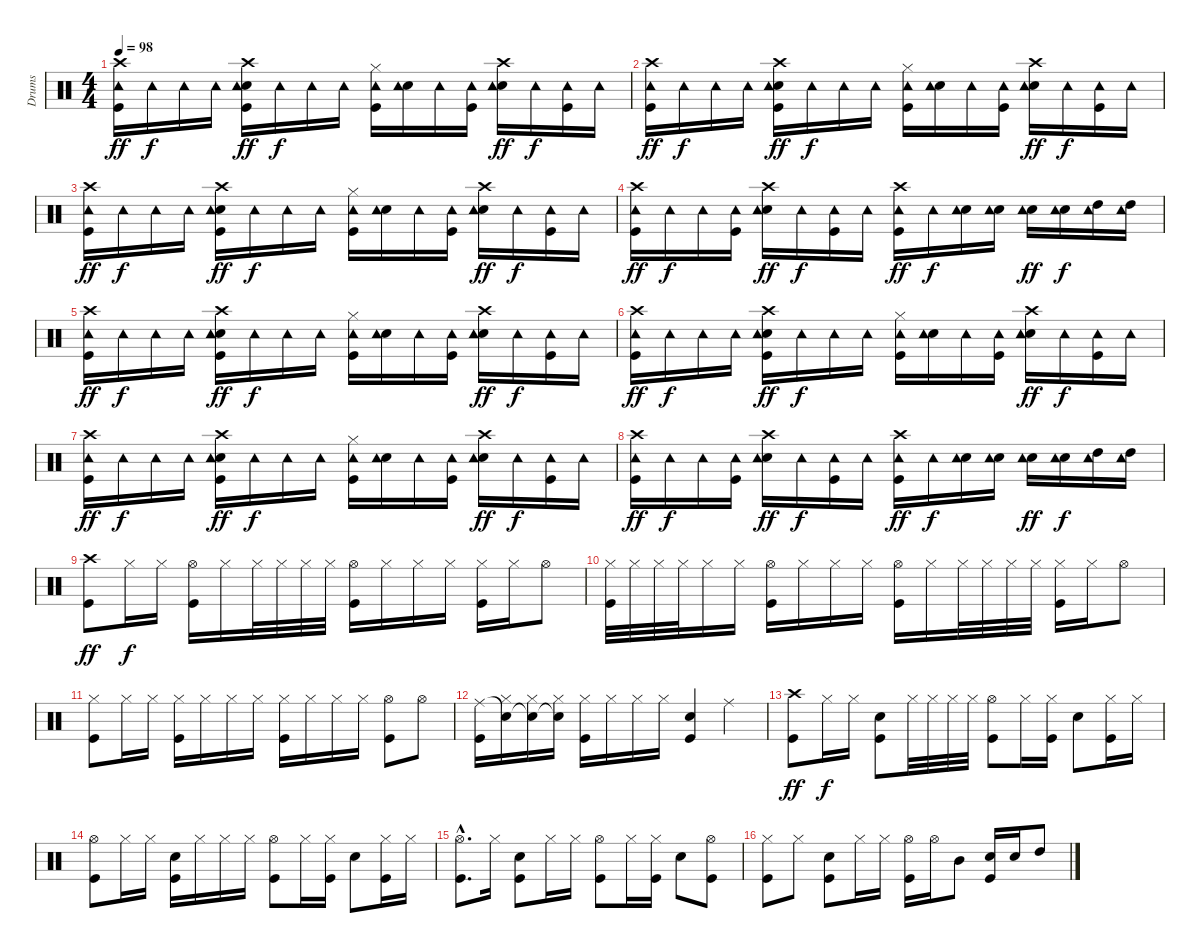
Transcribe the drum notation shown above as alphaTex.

\track ("Drums" "Drums") {instrument percussion}
\staff {score}
\articulation defaults
\ts (4 4)
\tempo 98
\clef neutral
\ks c
("Crash high (hit)" "Kick (hit)" "Tambourine (hit)").16{dy ff} "Tambourine (hit)".16{dy f} "Tambourine (hit)".16 "Tambourine (hit)".16 ("Crash high (hit)" "Kick (hit)" "Electric Snare (hit)" "Tambourine (hit)").16{dy ff} "Tambourine (hit)".16{dy f} "Tambourine (hit)".16 "Tambourine (hit)".16 ("Hi-Hat (closed)" "Kick (hit)" "Tambourine (hit)").16 ("Electric Snare (hit)" "Tambourine (hit)").16 "Tambourine (hit)".16 ("Kick (hit)" "Tambourine (hit)").16 ("Crash high (hit)" "Electric Snare (hit)" "Tambourine (hit)").16{dy ff} "Tambourine (hit)".16{dy f} ("Kick (hit)" "Tambourine (hit)").16 "Tambourine (hit)".16 |
("Crash high (hit)" "Kick (hit)" "Tambourine (hit)").16{dy ff} "Tambourine (hit)".16{dy f} "Tambourine (hit)".16 "Tambourine (hit)".16 ("Crash high (hit)" "Kick (hit)" "Electric Snare (hit)" "Tambourine (hit)").16{dy ff} "Tambourine (hit)".16{dy f} "Tambourine (hit)".16 "Tambourine (hit)".16 ("Hi-Hat (closed)" "Kick (hit)" "Tambourine (hit)").16 ("Electric Snare (hit)" "Tambourine (hit)").16 "Tambourine (hit)".16 ("Kick (hit)" "Tambourine (hit)").16 ("Crash high (hit)" "Electric Snare (hit)" "Tambourine (hit)").16{dy ff} "Tambourine (hit)".16{dy f} ("Kick (hit)" "Tambourine (hit)").16 "Tambourine (hit)".16 |
("Crash high (hit)" "Kick (hit)" "Tambourine (hit)").16{dy ff} "Tambourine (hit)".16{dy f} "Tambourine (hit)".16 "Tambourine (hit)".16 ("Crash high (hit)" "Kick (hit)" "Electric Snare (hit)" "Tambourine (hit)").16{dy ff} "Tambourine (hit)".16{dy f} "Tambourine (hit)".16 "Tambourine (hit)".16 ("Hi-Hat (closed)" "Kick (hit)" "Tambourine (hit)").16 ("Electric Snare (hit)" "Tambourine (hit)").16 "Tambourine (hit)".16 ("Kick (hit)" "Tambourine (hit)").16 ("Crash high (hit)" "Electric Snare (hit)" "Tambourine (hit)").16{dy ff} "Tambourine (hit)".16{dy f} ("Kick (hit)" "Tambourine (hit)").16 "Tambourine (hit)".16 |
("Crash high (hit)" "Kick (hit)" "Tambourine (hit)").16{dy ff} "Tambourine (hit)".16{dy f} "Tambourine (hit)".16 ("Kick (hit)" "Tambourine (hit)").16 ("Crash high (hit)" "Electric Snare (hit)" "Tambourine (hit)").16{dy ff} "Tambourine (hit)".16{dy f} ("Kick (hit)" "Tambourine (hit)").16 "Tambourine (hit)".16 ("Crash high (hit)" "Kick (hit)" "Tambourine (hit)").16{dy ff} "Tambourine (hit)".16{dy f} ("Electric Snare (hit)" "Tambourine (hit)").16 ("Electric Snare (hit)" "Tambourine (hit)").16 ("Electric Snare (hit)" "Tambourine (hit)").16{dy ff} ("Electric Snare (hit)" "Tambourine (hit)").16{dy f} ("High Tom (hit)" "Tambourine (hit)").16 ("High Tom (hit)" "Tambourine (hit)").16 |
("Crash high (hit)" "Kick (hit)" "Tambourine (hit)").16{dy ff} "Tambourine (hit)".16{dy f} "Tambourine (hit)".16 "Tambourine (hit)".16 ("Crash high (hit)" "Kick (hit)" "Electric Snare (hit)" "Tambourine (hit)").16{dy ff} "Tambourine (hit)".16{dy f} "Tambourine (hit)".16 "Tambourine (hit)".16 ("Hi-Hat (closed)" "Kick (hit)" "Tambourine (hit)").16 ("Electric Snare (hit)" "Tambourine (hit)").16 "Tambourine (hit)".16 ("Kick (hit)" "Tambourine (hit)").16 ("Crash high (hit)" "Electric Snare (hit)" "Tambourine (hit)").16{dy ff} "Tambourine (hit)".16{dy f} ("Kick (hit)" "Tambourine (hit)").16 "Tambourine (hit)".16 |
("Crash high (hit)" "Kick (hit)" "Tambourine (hit)").16{dy ff} "Tambourine (hit)".16{dy f} "Tambourine (hit)".16 "Tambourine (hit)".16 ("Crash high (hit)" "Kick (hit)" "Electric Snare (hit)" "Tambourine (hit)").16{dy ff} "Tambourine (hit)".16{dy f} "Tambourine (hit)".16 "Tambourine (hit)".16 ("Hi-Hat (closed)" "Kick (hit)" "Tambourine (hit)").16 ("Electric Snare (hit)" "Tambourine (hit)").16 "Tambourine (hit)".16 ("Kick (hit)" "Tambourine (hit)").16 ("Crash high (hit)" "Electric Snare (hit)" "Tambourine (hit)").16{dy ff} "Tambourine (hit)".16{dy f} ("Kick (hit)" "Tambourine (hit)").16 "Tambourine (hit)".16 |
("Crash high (hit)" "Kick (hit)" "Tambourine (hit)").16{dy ff} "Tambourine (hit)".16{dy f} "Tambourine (hit)".16 "Tambourine (hit)".16 ("Crash high (hit)" "Kick (hit)" "Electric Snare (hit)" "Tambourine (hit)").16{dy ff} "Tambourine (hit)".16{dy f} "Tambourine (hit)".16 "Tambourine (hit)".16 ("Hi-Hat (closed)" "Kick (hit)" "Tambourine (hit)").16 ("Electric Snare (hit)" "Tambourine (hit)").16 "Tambourine (hit)".16 ("Kick (hit)" "Tambourine (hit)").16 ("Crash high (hit)" "Electric Snare (hit)" "Tambourine (hit)").16{dy ff} "Tambourine (hit)".16{dy f} ("Kick (hit)" "Tambourine (hit)").16 "Tambourine (hit)".16 |
("Crash high (hit)" "Kick (hit)" "Tambourine (hit)").16{dy ff} "Tambourine (hit)".16{dy f} "Tambourine (hit)".16 ("Kick (hit)" "Tambourine (hit)").16 ("Crash high (hit)" "Electric Snare (hit)" "Tambourine (hit)").16{dy ff} "Tambourine (hit)".16{dy f} ("Kick (hit)" "Tambourine (hit)").16 "Tambourine (hit)".16 ("Crash high (hit)" "Kick (hit)" "Tambourine (hit)").16{dy ff} "Tambourine (hit)".16{dy f} ("Electric Snare (hit)" "Tambourine (hit)").16 ("Electric Snare (hit)" "Tambourine (hit)").16 ("Electric Snare (hit)" "Tambourine (hit)").16{dy ff} ("Electric Snare (hit)" "Tambourine (hit)").16{dy f} ("High Tom (hit)" "Tambourine (hit)").16 ("High Tom (hit)" "Tambourine (hit)").16 |
("Crash high (hit)" "Kick (hit)").8{dy ff} "Hi-Hat (closed)".16{dy f} "Hi-Hat (closed)".16 ("Hi-Hat (open)" "Kick (hit)").16 "Hi-Hat (closed)".16 "Hi-Hat (closed)".32 "Hi-Hat (closed)".32 "Hi-Hat (closed)".32 "Hi-Hat (closed)".32 ("Hi-Hat (open)" "Kick (hit)").16 "Hi-Hat (closed)".16 "Hi-Hat (closed)".16 "Hi-Hat (closed)".16 ("Hi-Hat (closed)" "Kick (hit)").16 "Hi-Hat (closed)".16 "Hi-Hat (open)".8 |
("Hi-Hat (closed)" "Kick (hit)").32 "Hi-Hat (closed)".32 "Hi-Hat (closed)".32 "Hi-Hat (closed)".32 "Hi-Hat (closed)".16 "Hi-Hat (closed)".16 ("Hi-Hat (open)" "Kick (hit)").16 "Hi-Hat (closed)".16 "Hi-Hat (closed)".16 "Hi-Hat (closed)".16 ("Hi-Hat (open)" "Kick (hit)").16 "Hi-Hat (closed)".16 "Hi-Hat (closed)".32 "Hi-Hat (closed)".32 "Hi-Hat (closed)".32 "Hi-Hat (closed)".32 ("Hi-Hat (closed)" "Kick (hit)").16 "Hi-Hat (closed)".16 "Hi-Hat (open)".8 |
("Hi-Hat (closed)" "Kick (hit)").8 "Hi-Hat (closed)".16 "Hi-Hat (closed)".16 ("Hi-Hat (closed)" "Kick (hit)").16 "Hi-Hat (closed)".16 "Hi-Hat (closed)".16 "Hi-Hat (closed)".16 ("Hi-Hat (closed)" "Kick (hit)").16 "Hi-Hat (closed)".16 "Hi-Hat (closed)".16 "Hi-Hat (closed)".16 ("Hi-Hat (open)" "Kick (hit)").8 "Hi-Hat (open)".8 |
("Kick (hit)" "Ride (middle)").16 ("Hi-Hat (closed)" "Snare (hit)"{t}).16 ("Hi-Hat (closed)" "Snare (hit)"{t}).16 ("Hi-Hat (closed)" "Snare (hit)"{t}).16 ("Hi-Hat (closed)" "Kick (hit)").16 "Hi-Hat (closed)".16 "Hi-Hat (closed)".16 "Hi-Hat (closed)".16 ("Electric Snare (hit)" "Kick (hit)").4 "Ride (middle)".4 |
("Crash high (hit)" "Kick (hit)").8{dy ff} "Hi-Hat (closed)".16{dy f} "Hi-Hat (closed)".16 ("Electric Snare (hit)" "Kick (hit)").8 "Hi-Hat (closed)".32 "Hi-Hat (closed)".32 "Hi-Hat (closed)".32 "Hi-Hat (closed)".32 ("Hi-Hat (open)" "Kick (hit)").8 "Hi-Hat (closed)".16 ("Hi-Hat (closed)" "Kick (hit)").16 "Electric Snare (hit)".8 ("Hi-Hat (closed)" "Kick (hit)").16 "Hi-Hat (closed)".16 |
("Hi-Hat (open)" "Kick (hit)").8 "Hi-Hat (closed)".16 "Hi-Hat (closed)".16 ("Electric Snare (hit)" "Kick (hit)").16 "Hi-Hat (closed)".16 "Hi-Hat (closed)".16 "Hi-Hat (closed)".16 ("Hi-Hat (open)" "Kick (hit)").8 "Hi-Hat (closed)".16 ("Hi-Hat (closed)" "Kick (hit)").16 "Electric Snare (hit)".8 ("Hi-Hat (closed)" "Kick (hit)").16 "Hi-Hat (closed)".16 |
("Hi-Hat (open)"{hac} "Kick (hit)"{hac}).8{d} "Hi-Hat (closed)".16 ("Electric Snare (hit)" "Kick (hit)").8 "Hi-Hat (closed)".16 "Hi-Hat (closed)".16 ("Hi-Hat (open)" "Kick (hit)").8 "Hi-Hat (closed)".16 ("Hi-Hat (closed)" "Kick (hit)").16 "Electric Snare (hit)".8 ("Hi-Hat (open)" "Kick (hit)").8 |
("Hi-Hat (closed)" "Kick (hit)").8 "Hi-Hat (closed)".8 ("Electric Snare (hit)" "Kick (hit)").8 "Hi-Hat (closed)".16 "Hi-Hat (closed)".16 ("Hi-Hat (open)" "Kick (hit)").16 "Hi-Hat (open)".16 "Mid Tom (hit)".8 ("Electric Snare (hit)" "Kick (hit)").16 "Electric Snare (hit)".16 "High Tom (hit)".8
